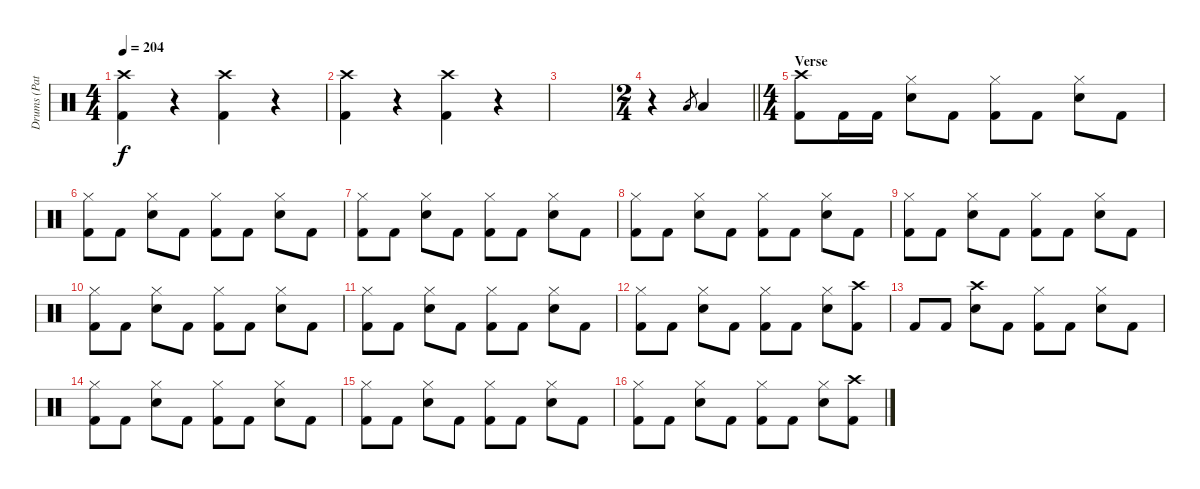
\track ("Drums (Patrick Johansson)" "Drums (Pat") {instrument percussion}
\staff {score}
\articulation defaults
\ts (4 4)
\tempo 204
\clef neutral
\ks c
("Crash high (hit)" "Kick (hit) 2").4{dy f} r.4 ("Crash high (hit)" "Kick (hit) 2").4 r.4 |
("Crash high (hit)" "Kick (hit) 2").4 r.4 ("Crash high (hit)" "Kick (hit) 2").4 r.4 |
|
\ts (2 4)
\barLineRight lightlight
r.4 "Low Tom (hit)".8{gr} "Low Tom (hit)".4 |
\ts (4 4)
\section ("" "Verse")
("Crash high (hit)" "Kick (hit) 2").8 "Kick (hit) 2".16 "Kick (hit) 2".16 ("Electric Snare (hit)" "Hi-Hat (closed)").8 "Kick (hit) 2".8 ("Hi-Hat (closed)" "Kick (hit) 2").8 "Kick (hit) 2".8 ("Electric Snare (hit)" "Hi-Hat (closed)").8 "Kick (hit) 2".8 |
("Hi-Hat (closed)" "Kick (hit) 2").8 "Kick (hit) 2".8 ("Electric Snare (hit)" "Hi-Hat (closed)").8 "Kick (hit) 2".8 ("Hi-Hat (closed)" "Kick (hit) 2").8 "Kick (hit) 2".8 ("Electric Snare (hit)" "Hi-Hat (closed)").8 "Kick (hit) 2".8 |
("Hi-Hat (closed)" "Kick (hit) 2").8 "Kick (hit) 2".8 ("Electric Snare (hit)" "Hi-Hat (closed)").8 "Kick (hit) 2".8 ("Hi-Hat (closed)" "Kick (hit) 2").8 "Kick (hit) 2".8 ("Electric Snare (hit)" "Hi-Hat (closed)").8 "Kick (hit) 2".8 |
("Hi-Hat (closed)" "Kick (hit) 2").8 "Kick (hit) 2".8 ("Electric Snare (hit)" "Hi-Hat (closed)").8 "Kick (hit) 2".8 ("Hi-Hat (closed)" "Kick (hit) 2").8 "Kick (hit) 2".8 ("Electric Snare (hit)" "Hi-Hat (closed)").8 "Kick (hit) 2".8 |
("Hi-Hat (closed)" "Kick (hit) 2").8 "Kick (hit) 2".8 ("Electric Snare (hit)" "Hi-Hat (closed)").8 "Kick (hit) 2".8 ("Hi-Hat (closed)" "Kick (hit) 2").8 "Kick (hit) 2".8 ("Electric Snare (hit)" "Hi-Hat (closed)").8 "Kick (hit) 2".8 |
("Hi-Hat (closed)" "Kick (hit) 2").8 "Kick (hit) 2".8 ("Electric Snare (hit)" "Hi-Hat (closed)").8 "Kick (hit) 2".8 ("Hi-Hat (closed)" "Kick (hit) 2").8 "Kick (hit) 2".8 ("Electric Snare (hit)" "Hi-Hat (closed)").8 "Kick (hit) 2".8 |
("Hi-Hat (closed)" "Kick (hit) 2").8 "Kick (hit) 2".8 ("Electric Snare (hit)" "Hi-Hat (closed)").8 "Kick (hit) 2".8 ("Hi-Hat (closed)" "Kick (hit) 2").8 "Kick (hit) 2".8 ("Electric Snare (hit)" "Hi-Hat (closed)").8 "Kick (hit) 2".8 |
("Hi-Hat (closed)" "Kick (hit) 2").8 "Kick (hit) 2".8 ("Electric Snare (hit)" "Hi-Hat (closed)").8 "Kick (hit) 2".8 ("Hi-Hat (closed)" "Kick (hit) 2").8 "Kick (hit) 2".8 ("Electric Snare (hit)" "Hi-Hat (closed)").8 ("Crash high (hit)" "Kick (hit) 2").8 |
"Kick (hit) 2".8 "Kick (hit) 2".8 ("Crash high (hit)" "Electric Snare (hit)").8 "Kick (hit) 2".8 ("Hi-Hat (closed)" "Kick (hit) 2").8 "Kick (hit) 2".8 ("Electric Snare (hit)" "Hi-Hat (closed)").8 "Kick (hit) 2".8 |
("Hi-Hat (closed)" "Kick (hit) 2").8 "Kick (hit) 2".8 ("Electric Snare (hit)" "Hi-Hat (closed)").8 "Kick (hit) 2".8 ("Hi-Hat (closed)" "Kick (hit) 2").8 "Kick (hit) 2".8 ("Electric Snare (hit)" "Hi-Hat (closed)").8 "Kick (hit) 2".8 |
("Hi-Hat (closed)" "Kick (hit) 2").8 "Kick (hit) 2".8 ("Electric Snare (hit)" "Hi-Hat (closed)").8 "Kick (hit) 2".8 ("Hi-Hat (closed)" "Kick (hit) 2").8 "Kick (hit) 2".8 ("Electric Snare (hit)" "Hi-Hat (closed)").8 "Kick (hit) 2".8 |
("Hi-Hat (closed)" "Kick (hit) 2").8 "Kick (hit) 2".8 ("Electric Snare (hit)" "Hi-Hat (closed)").8 "Kick (hit) 2".8 ("Hi-Hat (closed)" "Kick (hit) 2").8 "Kick (hit) 2".8 ("Electric Snare (hit)" "Hi-Hat (closed)").8 ("Crash high (hit)" "Kick (hit) 2").8
